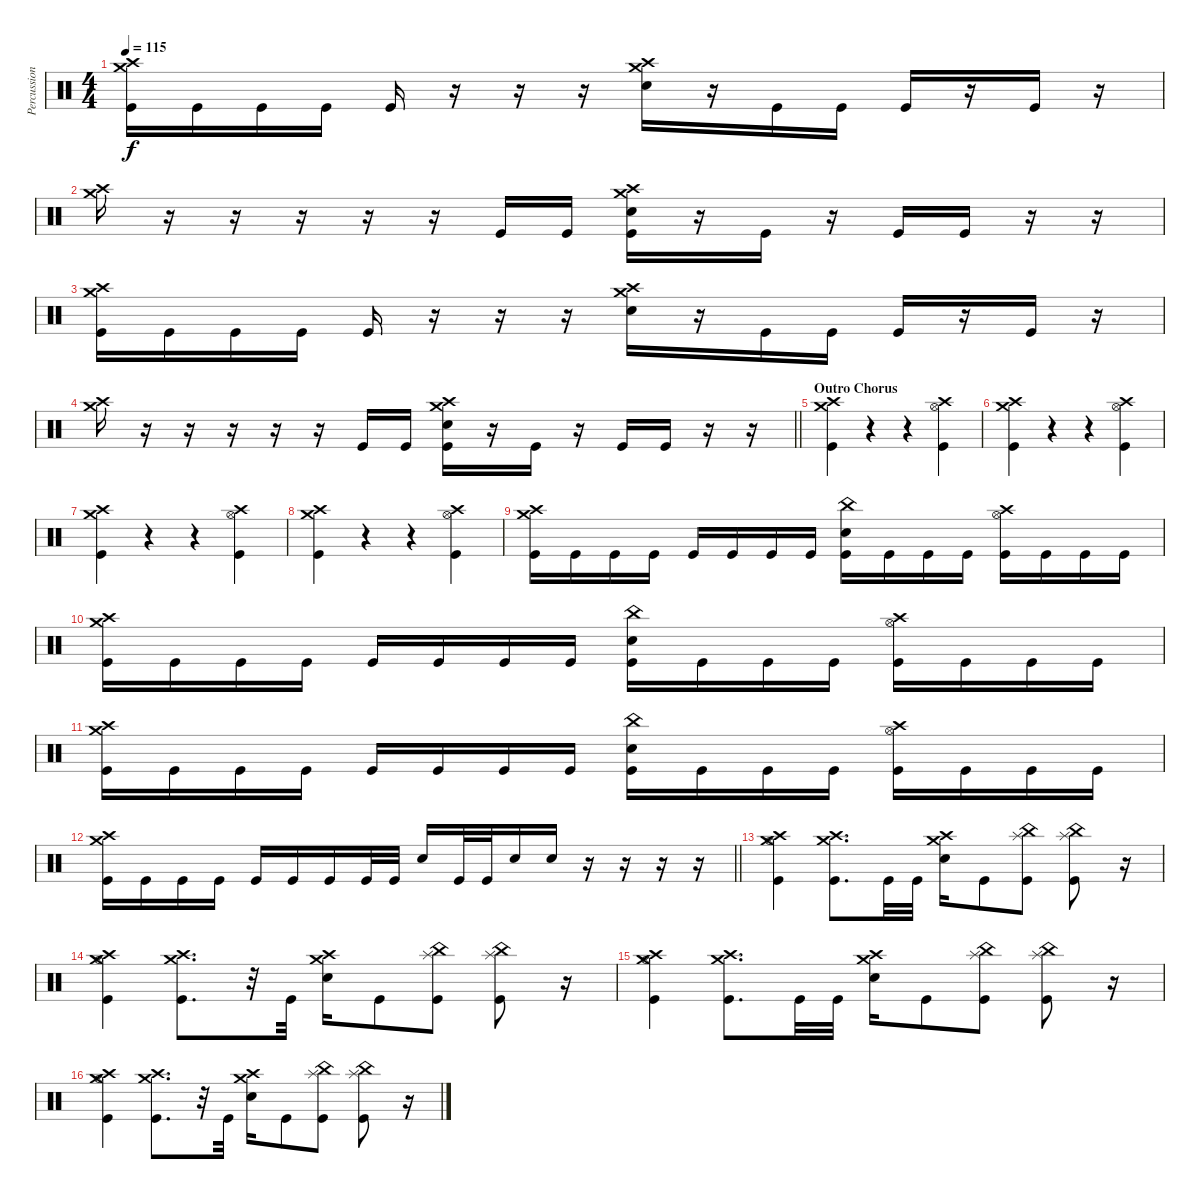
\track ("Percussion (Approx.)" "Percussion") {instrument percussion}
\staff {score}
\articulation defaults
\ts (4 4)
\tempo 115
\clef neutral
\ks c
("Crash medium (hit)" "Crash high (hit)" "Kick (hit)").16{dy f} "Kick (hit)".16 "Kick (hit)".16 "Kick (hit)".16 "Kick (hit)".16 r.16 r.16 r.16 ("Crash medium (hit)" "Crash high (hit)" "Electric Snare (hit)").16 r.16 "Kick (hit)".16 "Kick (hit)".16 "Kick (hit)".16 r.16 "Kick (hit)".16 r.16 |
("Crash medium (hit)" "Crash high (hit)").16 r.16 r.16 r.16 r.16 r.16 "Kick (hit)".16 "Kick (hit)".16 ("Crash medium (hit)" "Crash high (hit)" "Electric Snare (hit)" "Kick (hit)").16 r.16 "Kick (hit)".16 r.16 "Kick (hit)".16 "Kick (hit)".16 r.16 r.16 |
("Crash medium (hit)" "Crash high (hit)" "Kick (hit)").16 "Kick (hit)".16 "Kick (hit)".16 "Kick (hit)".16 "Kick (hit)".16 r.16 r.16 r.16 ("Crash medium (hit)" "Crash high (hit)" "Electric Snare (hit)").16 r.16 "Kick (hit)".16 "Kick (hit)".16 "Kick (hit)".16 r.16 "Kick (hit)".16 r.16 |
\barLineRight lightlight
("Crash medium (hit)" "Crash high (hit)").16 r.16 r.16 r.16 r.16 r.16 "Kick (hit)".16 "Kick (hit)".16 ("Crash medium (hit)" "Crash high (hit)" "Electric Snare (hit)" "Kick (hit)").16 r.16 "Kick (hit)".16 r.16 "Kick (hit)".16 "Kick (hit)".16 r.16 r.16 |
\section ("" "Outro Chorus")
("Crash medium (hit)" "Crash high (hit)" "Kick (hit)").4 r.4 r.4 ("Hi-Hat (open)" "Crash high (hit)" "Kick (hit)").4 |
("Crash medium (hit)" "Crash high (hit)" "Kick (hit)").4 r.4 r.4 ("Hi-Hat (open)" "Crash high (hit)" "Kick (hit)").4 |
("Crash medium (hit)" "Crash high (hit)" "Kick (hit)").4 r.4 r.4 ("Hi-Hat (open)" "Crash high (hit)" "Kick (hit)").4 |
("Crash medium (hit)" "Crash high (hit)" "Kick (hit)").4 r.4 r.4 ("Hi-Hat (open)" "Crash high (hit)" "Kick (hit)").4 |
("Crash medium (hit)" "Crash high (hit)" "Kick (hit)").16 "Kick (hit)".16 "Kick (hit)".16 "Kick (hit)".16 "Kick (hit)".16 "Kick (hit)".16 "Kick (hit)".16 "Kick (hit)".16 ("China (hit)" "Electric Snare (hit)" "Kick (hit)").16 "Kick (hit)".16 "Kick (hit)".16 "Kick (hit)".16 ("Hi-Hat (open)" "Crash high (hit)" "Kick (hit)").16 "Kick (hit)".16 "Kick (hit)".16 "Kick (hit)".16 |
("Crash medium (hit)" "Crash high (hit)" "Kick (hit)").16 "Kick (hit)".16 "Kick (hit)".16 "Kick (hit)".16 "Kick (hit)".16 "Kick (hit)".16 "Kick (hit)".16 "Kick (hit)".16 ("China (hit)" "Electric Snare (hit)" "Kick (hit)").16 "Kick (hit)".16 "Kick (hit)".16 "Kick (hit)".16 ("Hi-Hat (open)" "Crash high (hit)" "Kick (hit)").16 "Kick (hit)".16 "Kick (hit)".16 "Kick (hit)".16 |
("Crash medium (hit)" "Crash high (hit)" "Kick (hit)").16 "Kick (hit)".16 "Kick (hit)".16 "Kick (hit)".16 "Kick (hit)".16 "Kick (hit)".16 "Kick (hit)".16 "Kick (hit)".16 ("China (hit)" "Electric Snare (hit)" "Kick (hit)").16 "Kick (hit)".16 "Kick (hit)".16 "Kick (hit)".16 ("Hi-Hat (open)" "Crash high (hit)" "Kick (hit)").16 "Kick (hit)".16 "Kick (hit)".16 "Kick (hit)".16 |
\barLineRight lightlight
("Crash medium (hit)" "Crash high (hit)" "Kick (hit)").16 "Kick (hit)".16 "Kick (hit)".16 "Kick (hit)".16 "Kick (hit)".16 "Kick (hit)".16 "Kick (hit)".16 "Kick (hit)".32 "Kick (hit)".32 "Electric Snare (hit)".16 "Kick (hit)".32 "Kick (hit)".32 "Electric Snare (hit)".16 "Electric Snare (hit)".16 r.16 r.16 r.16 r.16 |
\section ("" "")
("Hi-Hat (open)" "Crash medium (hit)" "Crash high (hit)" "Kick (hit)").4 ("Crash medium (hit)" "Crash high (hit)" "Kick (hit)").8{d} "Kick (hit)".32 "Kick (hit)".32 ("Crash medium (hit)" "Crash high (hit)" "Electric Snare (hit)").16 "Kick (hit)".8 ("China (hit)" "Splash (hit)" "Kick (hit)").8 ("China (hit)" "Splash (hit)" "Kick (hit)").8 r.16 |
("Hi-Hat (open)" "Crash medium (hit)" "Crash high (hit)" "Kick (hit)").4 ("Crash medium (hit)" "Crash high (hit)" "Kick (hit)").8{d} r.32 "Kick (hit)".32 ("Crash medium (hit)" "Crash high (hit)" "Electric Snare (hit)").16 "Kick (hit)".8 ("China (hit)" "Splash (hit)" "Kick (hit)").8 ("China (hit)" "Splash (hit)" "Kick (hit)").8 r.16 |
("Hi-Hat (open)" "Crash medium (hit)" "Crash high (hit)" "Kick (hit)").4 ("Crash medium (hit)" "Crash high (hit)" "Kick (hit)").8{d} "Kick (hit)".32 "Kick (hit)".32 ("Crash medium (hit)" "Crash high (hit)" "Electric Snare (hit)").16 "Kick (hit)".8 ("China (hit)" "Splash (hit)" "Kick (hit)").8 ("China (hit)" "Splash (hit)" "Kick (hit)").8 r.16 |
("Hi-Hat (open)" "Crash medium (hit)" "Crash high (hit)" "Kick (hit)").4 ("Crash medium (hit)" "Crash high (hit)" "Kick (hit)").8{d} r.32 "Kick (hit)".32 ("Crash medium (hit)" "Crash high (hit)" "Electric Snare (hit)").16 "Kick (hit)".8 ("China (hit)" "Splash (hit)" "Kick (hit)").8 ("China (hit)" "Splash (hit)" "Kick (hit)").8 r.16
